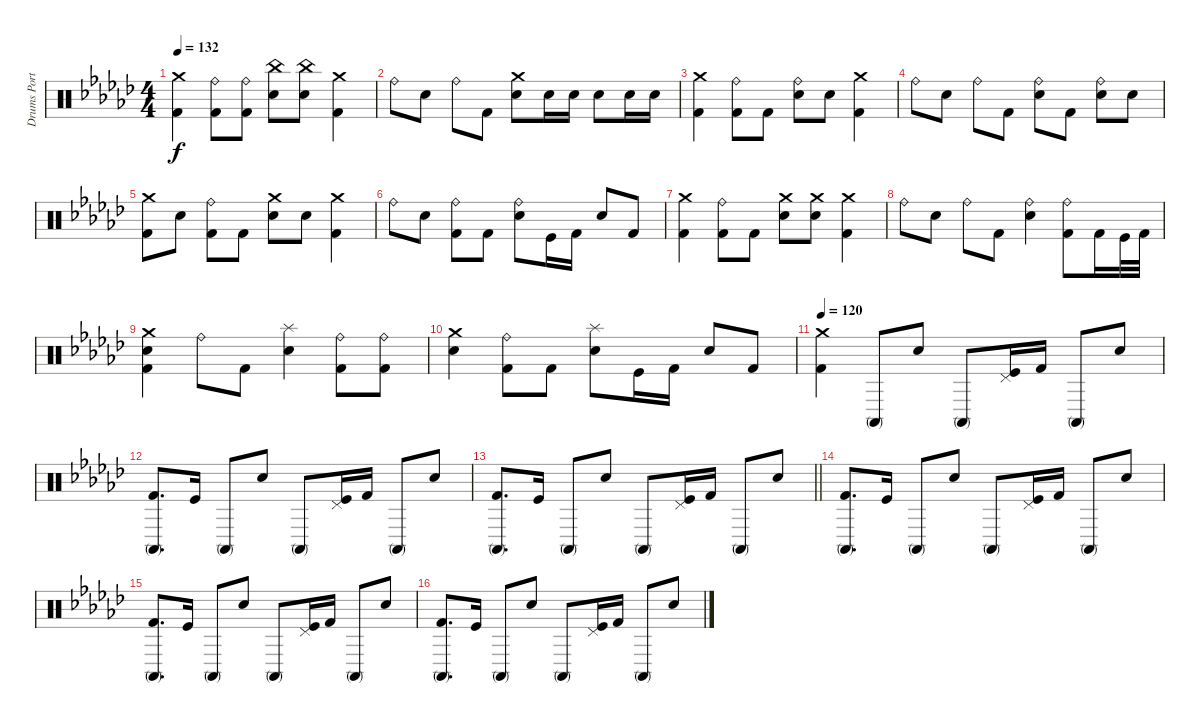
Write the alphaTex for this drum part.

\track ("Drums Portnoy" "Drums Port") {instrument percussion}
\staff {score}
\articulation defaults
\ts (4 4)
\tempo 132
\clef neutral
\ks gb
("Crash medium (hit)" "Kick (hit) 2").4{dy f} ("Ride (bell)" "Kick (hit) 2").8 ("Ride (bell)" "Kick (hit) 2").8 ("China (hit)" "Snare (hit) 2").8 ("China (hit)" "Snare (hit) 2").8 ("Crash medium (hit)" "Kick (hit) 2").4 |
"Ride (bell)".8 "Snare (hit) 2".8 "Ride (bell)".8 "Kick (hit) 2".8 ("Crash medium (hit)" "Snare (hit) 2").8 "Snare (hit) 2".16 "Snare (hit) 2".16 "Snare (hit) 2".8 "Snare (hit) 2".16 "Snare (hit) 2".16 |
("Crash medium (hit)" "Kick (hit) 2").4 ("Ride (bell)" "Kick (hit) 2").8 "Kick (hit) 2".8 ("Ride (bell)" "Snare (hit) 2").8 "Snare (hit) 2".8 ("Crash medium (hit)" "Kick (hit) 2").4 |
"Ride (bell)".8 "Snare (hit) 2".8 "Ride (bell)".8 "Kick (hit) 2".8 ("Ride (bell)" "Snare (hit) 2").8 "Kick (hit) 2".8 ("Ride (bell)" "Snare (hit) 2").8 "Snare (hit) 2".8 |
("Crash medium (hit)" "Kick (hit) 2").8 "Snare (hit) 2".8 ("Ride (bell)" "Kick (hit) 2").8 "Kick (hit) 2".8 ("Crash medium (hit)" "Snare (hit) 2").8 "Snare (hit) 2".8 ("Crash medium (hit)" "Kick (hit) 2").4 |
"Ride (bell)".8 "Snare (hit) 2".8 ("Ride (bell)" "Kick (hit) 2").8 "Kick (hit) 2".8 ("Ride (bell)" "Snare (hit) 2").8 "Kick (hit)".16 "Kick (hit) 2".16 "Snare (hit) 2".8 "Kick (hit) 2".8 |
("Crash medium (hit)" "Kick (hit) 2").4 ("Ride (bell)" "Kick (hit) 2").8 "Kick (hit) 2".8 ("Crash medium (hit)" "Snare (hit) 2").8 ("Crash medium (hit)" "Snare (hit) 2").8 ("Crash medium (hit)" "Kick (hit) 2").4 |
"Ride (bell)".8 "Snare (hit) 2".8 "Ride (bell)".8 "Kick (hit) 2".8 ("Ride (bell)" "Snare (hit) 2").4 ("Ride (bell)" "Kick (hit) 2").8 "Kick (hit) 2".16 "Kick (hit)".32 "Kick (hit) 2".32 |
("Crash medium (hit)" "Snare (hit) 2" "Kick (hit) 2").4 "Ride (bell)".8 "Kick (hit) 2".8 ("Splash (hit)" "Snare (hit) 2").4 ("Ride (bell)" "Kick (hit) 2").8 ("Ride (bell)" "Kick (hit) 2").8 |
("Crash medium (hit)" "Snare (hit) 2").4 ("Ride (bell)" "Kick (hit) 2").8 "Kick (hit) 2".8 ("Splash (hit)" "Snare (hit) 2").8 "Kick (hit)".16 "Kick (hit) 2".16 "Snare (hit) 2".8 "Kick (hit) 2".8 |
\tempo 120
("Crash medium (hit)" "Kick (hit) 2").4 "Conga high (mute)".8 "Snare (hit) 2".8 "Conga high (mute)".8 ("Pedal Hi-Hat (hit)" "Kick (hit)").16 "Kick (hit) 2".16 "Conga high (mute)".8 "Snare (hit) 2".8 |
("Conga high (mute)" "Kick (hit) 2").8{d} "Kick (hit)".16 "Conga high (mute)".8 "Snare (hit) 2".8 "Conga high (mute)".8 ("Pedal Hi-Hat (hit)" "Kick (hit)").16 "Kick (hit) 2".16 "Conga high (mute)".8 "Snare (hit) 2".8 |
\barLineRight lightlight
("Conga high (mute)" "Kick (hit) 2").8{d} "Kick (hit)".16 "Conga high (mute)".8 "Snare (hit) 2".8 "Conga high (mute)".8 ("Pedal Hi-Hat (hit)" "Kick (hit)").16 "Kick (hit) 2".16 "Conga high (mute)".8 "Snare (hit) 2".8 |
("Conga high (mute)" "Kick (hit) 2").8{d} "Kick (hit)".16 "Conga high (mute)".8 "Snare (hit) 2".8 "Conga high (mute)".8 ("Pedal Hi-Hat (hit)" "Kick (hit)").16 "Kick (hit) 2".16 "Conga high (mute)".8 "Snare (hit) 2".8 |
("Conga high (mute)" "Kick (hit) 2").8{d} "Kick (hit)".16 "Conga high (mute)".8 "Snare (hit) 2".8 "Conga high (mute)".8 ("Pedal Hi-Hat (hit)" "Kick (hit)").16 "Kick (hit) 2".16 "Conga high (mute)".8 "Snare (hit) 2".8 |
("Conga high (mute)" "Kick (hit) 2").8{d} "Kick (hit)".16 "Conga high (mute)".8 "Snare (hit) 2".8 "Conga high (mute)".8 ("Pedal Hi-Hat (hit)" "Kick (hit)").16 "Kick (hit) 2".16 "Conga high (mute)".8 "Snare (hit) 2".8
